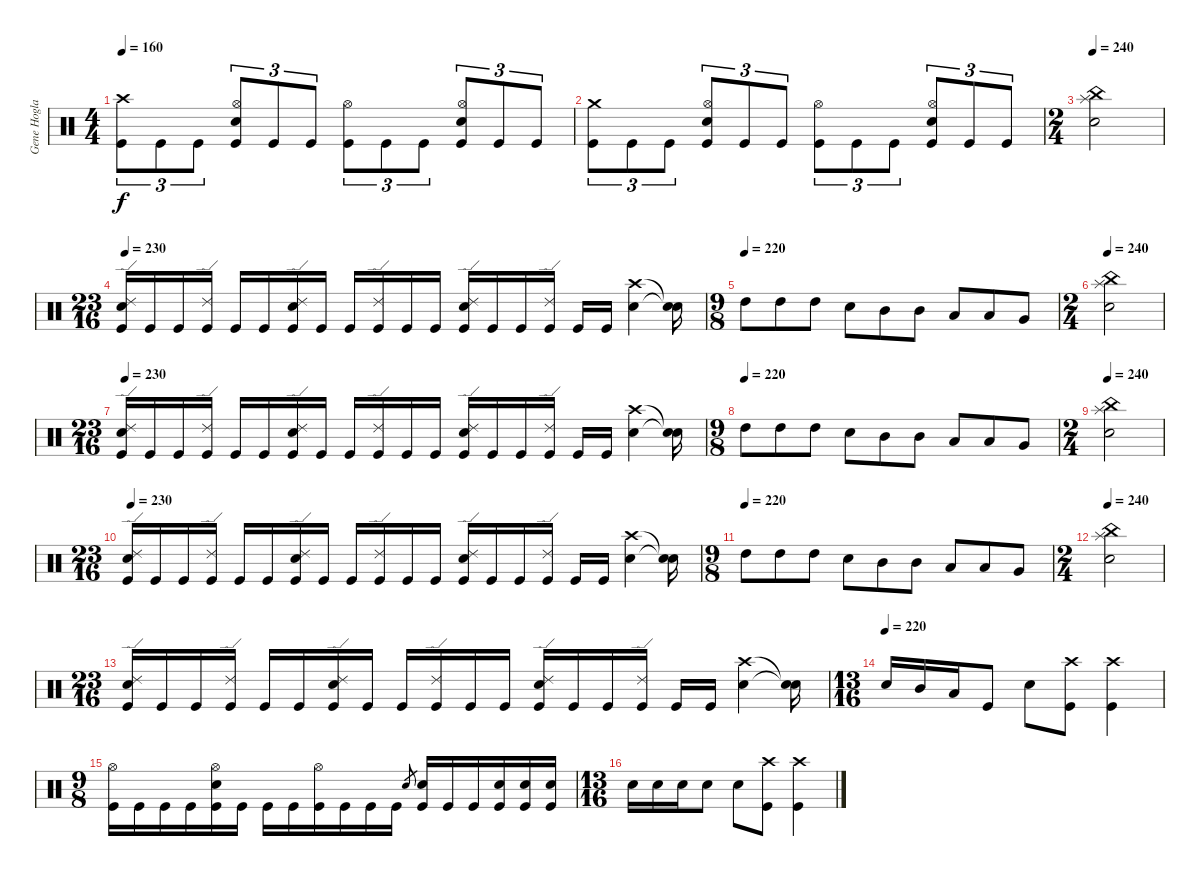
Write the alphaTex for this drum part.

\track ("Gene Hoglan" "Gene Hogla") {instrument percussion}
\staff {score}
\articulation defaults
\ts (4 4)
\tempo 160
\clef neutral
\ks c
("Crash high (hit)" "Kick (hit)").8{tu (3 2) dy f} "Kick (hit)".8{tu (3 2)} "Kick (hit)".8{tu (3 2)} ("Hi-Hat (open)" "Electric Snare (hit)" "Kick (hit)").8{tu (3 2)} "Kick (hit)".8{tu (3 2)} "Kick (hit)".8{tu (3 2)} ("Hi-Hat (open)" "Kick (hit)").8{tu (3 2)} "Kick (hit)".8{tu (3 2)} "Kick (hit)".8{tu (3 2)} ("Hi-Hat (open)" "Electric Snare (hit)" "Kick (hit)").8{tu (3 2)} "Kick (hit)".8{tu (3 2)} "Kick (hit)".8{tu (3 2)} |
("Crash medium (hit)" "Kick (hit)").8{tu (3 2)} "Kick (hit)".8{tu (3 2)} "Kick (hit)".8{tu (3 2)} ("Hi-Hat (open)" "Electric Snare (hit)" "Kick (hit)").8{tu (3 2)} "Kick (hit)".8{tu (3 2)} "Kick (hit)".8{tu (3 2)} ("Hi-Hat (open)" "Kick (hit)").8{tu (3 2)} "Kick (hit)".8{tu (3 2)} "Kick (hit)".8{tu (3 2)} ("Hi-Hat (open)" "Electric Snare (hit)" "Kick (hit)").8{tu (3 2)} "Kick (hit)".8{tu (3 2)} "Kick (hit)".8{tu (3 2)} |
\ts (2 4)
\tempo 230
\tempo 240
("Splash (hit)" "China (hit)" "Electric Snare (hit)").2 |
\ts (23 16)
\tempo 230
("Ride (edge) 2" "Electric Snare (hit)" "Kick (hit)").16 "Kick (hit)".16 "Kick (hit)".16 ("Ride (edge) 2" "Kick (hit)").16 "Kick (hit)".16 "Kick (hit)".16 ("Ride (edge) 2" "Electric Snare (hit)" "Kick (hit)").16 "Kick (hit)".16 "Kick (hit)".16 ("Ride (edge) 2" "Kick (hit)").16 "Kick (hit)".16 "Kick (hit)".16 ("Ride (edge) 2" "Electric Snare (hit)" "Kick (hit)").16 "Kick (hit)".16 "Kick (hit)".16 ("Ride (edge) 2" "Kick (hit)").16 "Kick (hit)".16 "Kick (hit)".16 ("Crash high (hit)" "Electric Snare (hit)").4 ("Snare (hit)"{t} "Snare (hit)"{t}).16 |
\ts (9 8)
\tempo (220)
"High Tom (hit)".8 "High Tom (hit)".8 "High Tom (hit)".8 "Electric Snare (hit)".8 "Mid Tom (hit)".8 "Mid Tom (hit)".8 "Low Tom (hit)".8 "Low Tom (hit)".8 "Very Low Tom (hit)".8 |
\ts (2 4)
\tempo 240
("Splash (hit)" "China (hit)" "Electric Snare (hit)").2 |
\ts (23 16)
\tempo 230
("Ride (edge) 2" "Electric Snare (hit)" "Kick (hit)").16 "Kick (hit)".16 "Kick (hit)".16 ("Ride (edge) 2" "Kick (hit)").16 "Kick (hit)".16 "Kick (hit)".16 ("Ride (edge) 2" "Electric Snare (hit)" "Kick (hit)").16 "Kick (hit)".16 "Kick (hit)".16 ("Ride (edge) 2" "Kick (hit)").16 "Kick (hit)".16 "Kick (hit)".16 ("Ride (edge) 2" "Electric Snare (hit)" "Kick (hit)").16 "Kick (hit)".16 "Kick (hit)".16 ("Ride (edge) 2" "Kick (hit)").16 "Kick (hit)".16 "Kick (hit)".16 ("Crash high (hit)" "Electric Snare (hit)").4 ("Snare (hit)"{t} "Snare (hit)"{t}).16 |
\ts (9 8)
\tempo (220)
"High Tom (hit)".8 "High Tom (hit)".8 "High Tom (hit)".8 "Electric Snare (hit)".8 "Mid Tom (hit)".8 "Mid Tom (hit)".8 "Low Tom (hit)".8 "Low Tom (hit)".8 "Very Low Tom (hit)".8 |
\ts (2 4)
\tempo 240
("Splash (hit)" "China (hit)" "Electric Snare (hit)").2 |
\ts (23 16)
\tempo 230
("Ride (edge) 2" "Electric Snare (hit)" "Kick (hit)").16 "Kick (hit)".16 "Kick (hit)".16 ("Ride (edge) 2" "Kick (hit)").16 "Kick (hit)".16 "Kick (hit)".16 ("Ride (edge) 2" "Electric Snare (hit)" "Kick (hit)").16 "Kick (hit)".16 "Kick (hit)".16 ("Ride (edge) 2" "Kick (hit)").16 "Kick (hit)".16 "Kick (hit)".16 ("Ride (edge) 2" "Electric Snare (hit)" "Kick (hit)").16 "Kick (hit)".16 "Kick (hit)".16 ("Ride (edge) 2" "Kick (hit)").16 "Kick (hit)".16 "Kick (hit)".16 ("Crash high (hit)" "Electric Snare (hit)").4 ("Snare (hit)"{t} "Snare (hit)"{t}).16 |
\ts (9 8)
\tempo (220)
"High Tom (hit)".8 "High Tom (hit)".8 "High Tom (hit)".8 "Electric Snare (hit)".8 "Mid Tom (hit)".8 "Mid Tom (hit)".8 "Low Tom (hit)".8 "Low Tom (hit)".8 "Very Low Tom (hit)".8 |
\ts (2 4)
\tempo 240
("Splash (hit)" "China (hit)" "Electric Snare (hit)").2 |
\ts (23 16)
("Ride (edge) 2" "Electric Snare (hit)" "Kick (hit)").16 "Kick (hit)".16 "Kick (hit)".16 ("Ride (edge) 2" "Kick (hit)").16 "Kick (hit)".16 "Kick (hit)".16 ("Ride (edge) 2" "Electric Snare (hit)" "Kick (hit)").16 "Kick (hit)".16 "Kick (hit)".16 ("Ride (edge) 2" "Kick (hit)").16 "Kick (hit)".16 "Kick (hit)".16 ("Ride (edge) 2" "Electric Snare (hit)" "Kick (hit)").16 "Kick (hit)".16 "Kick (hit)".16 ("Ride (edge) 2" "Kick (hit)").16 "Kick (hit)".16 "Kick (hit)".16 ("Crash high (hit)" "Electric Snare (hit)").4 ("Snare (hit)"{t} "Snare (hit)"{t}).16 |
\ts (13 16)
\tempo (220)
"Electric Snare (hit)".16 "Mid Tom (hit)".16 "Low Tom (hit)".16 "Kick (hit)".8 "Electric Snare (hit)".8 ("Crash high (hit)" "Kick (hit)").8 ("Crash high (hit)" "Kick (hit)").4 |
\ts (9 8)
("Hi-Hat (open)" "Kick (hit)").16 "Kick (hit)".16 "Kick (hit)".16 "Kick (hit)".16 ("Hi-Hat (open)" "Electric Snare (hit)" "Kick (hit)").16 "Kick (hit)".16 "Kick (hit)".16 "Kick (hit)".16 ("Hi-Hat (open)" "Kick (hit)").16 "Kick (hit)".16 "Kick (hit)".16 "Kick (hit)".16 "Electric Snare (hit)".8{gr} ("Electric Snare (hit)" "Kick (hit)").16 "Kick (hit)".16 "Kick (hit)".16 ("Electric Snare (hit)" "Kick (hit)").16 ("Electric Snare (hit)" "Kick (hit)").16 ("Electric Snare (hit)" "Kick (hit)").16 |
\ts (13 16)
"Electric Snare (hit)".16 "Electric Snare (hit)".16 "Electric Snare (hit)".16 "Electric Snare (hit)".8 "Electric Snare (hit)".8 ("Crash high (hit)" "Kick (hit)").8 ("Crash high (hit)" "Kick (hit)").4
